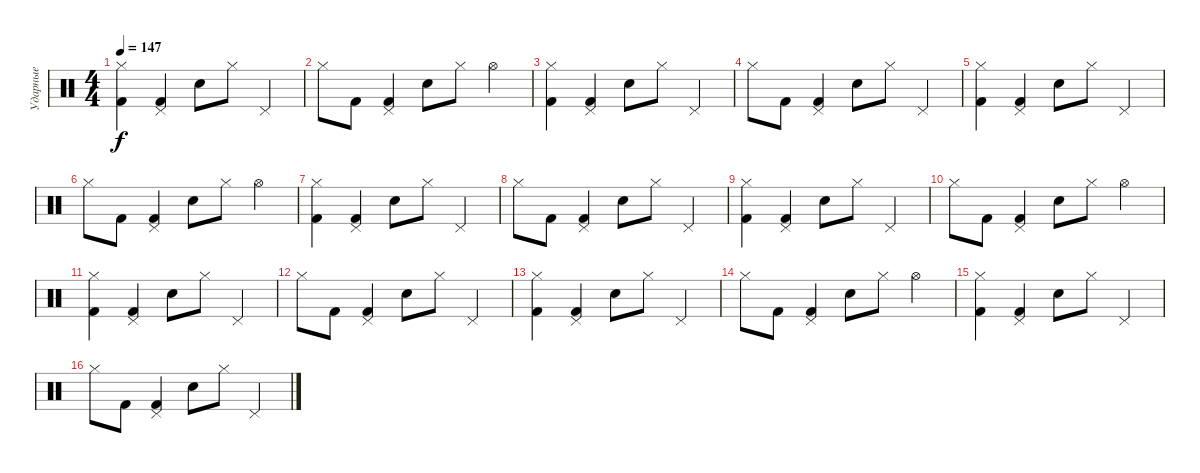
\track ("Ударные" "Ударные") {instrument percussion}
\staff {score}
\articulation defaults
\ts (4 4)
\tempo 147
\clef neutral
\ks c
("Hi-Hat (closed)" "Kick (hit) 2").4{dy f} ("Pedal Hi-Hat (hit)" "Kick (hit) 2").4 "Electric Snare (hit)".8 "Hi-Hat (closed)".8 "Pedal Hi-Hat (hit)".4 |
"Hi-Hat (closed)".8 "Kick (hit) 2".8 ("Pedal Hi-Hat (hit)" "Kick (hit) 2").4 "Electric Snare (hit)".8 "Hi-Hat (closed)".8 "Hi-Hat (open)".4 |
("Hi-Hat (closed)" "Kick (hit) 2").4 ("Pedal Hi-Hat (hit)" "Kick (hit) 2").4 "Electric Snare (hit)".8 "Hi-Hat (closed)".8 "Pedal Hi-Hat (hit)".4 |
"Hi-Hat (closed)".8 "Kick (hit) 2".8 ("Pedal Hi-Hat (hit)" "Kick (hit) 2").4 "Electric Snare (hit)".8 "Hi-Hat (closed)".8 "Pedal Hi-Hat (hit)".4 |
("Hi-Hat (closed)" "Kick (hit) 2").4 ("Pedal Hi-Hat (hit)" "Kick (hit) 2").4 "Electric Snare (hit)".8 "Hi-Hat (closed)".8 "Pedal Hi-Hat (hit)".4 |
"Hi-Hat (closed)".8 "Kick (hit) 2".8 ("Pedal Hi-Hat (hit)" "Kick (hit) 2").4 "Electric Snare (hit)".8 "Hi-Hat (closed)".8 "Hi-Hat (open)".4 |
("Hi-Hat (closed)" "Kick (hit) 2").4 ("Pedal Hi-Hat (hit)" "Kick (hit) 2").4 "Electric Snare (hit)".8 "Hi-Hat (closed)".8 "Pedal Hi-Hat (hit)".4 |
"Hi-Hat (closed)".8 "Kick (hit) 2".8 ("Pedal Hi-Hat (hit)" "Kick (hit) 2").4 "Electric Snare (hit)".8 "Hi-Hat (closed)".8 "Pedal Hi-Hat (hit)".4 |
("Hi-Hat (closed)" "Kick (hit) 2").4 ("Pedal Hi-Hat (hit)" "Kick (hit) 2").4 "Electric Snare (hit)".8 "Hi-Hat (closed)".8 "Pedal Hi-Hat (hit)".4 |
"Hi-Hat (closed)".8 "Kick (hit) 2".8 ("Pedal Hi-Hat (hit)" "Kick (hit) 2").4 "Electric Snare (hit)".8 "Hi-Hat (closed)".8 "Hi-Hat (open)".4 |
("Hi-Hat (closed)" "Kick (hit) 2").4 ("Pedal Hi-Hat (hit)" "Kick (hit) 2").4 "Electric Snare (hit)".8 "Hi-Hat (closed)".8 "Pedal Hi-Hat (hit)".4 |
"Hi-Hat (closed)".8 "Kick (hit) 2".8 ("Pedal Hi-Hat (hit)" "Kick (hit) 2").4 "Electric Snare (hit)".8 "Hi-Hat (closed)".8 "Pedal Hi-Hat (hit)".4 |
("Hi-Hat (closed)" "Kick (hit) 2").4 ("Pedal Hi-Hat (hit)" "Kick (hit) 2").4 "Electric Snare (hit)".8 "Hi-Hat (closed)".8 "Pedal Hi-Hat (hit)".4 |
"Hi-Hat (closed)".8 "Kick (hit) 2".8 ("Pedal Hi-Hat (hit)" "Kick (hit) 2").4 "Electric Snare (hit)".8 "Hi-Hat (closed)".8 "Hi-Hat (open)".4 |
("Hi-Hat (closed)" "Kick (hit) 2").4 ("Pedal Hi-Hat (hit)" "Kick (hit) 2").4 "Electric Snare (hit)".8 "Hi-Hat (closed)".8 "Pedal Hi-Hat (hit)".4 |
"Hi-Hat (closed)".8 "Kick (hit) 2".8 ("Pedal Hi-Hat (hit)" "Kick (hit) 2").4 "Electric Snare (hit)".8 "Hi-Hat (closed)".8 "Pedal Hi-Hat (hit)".4
